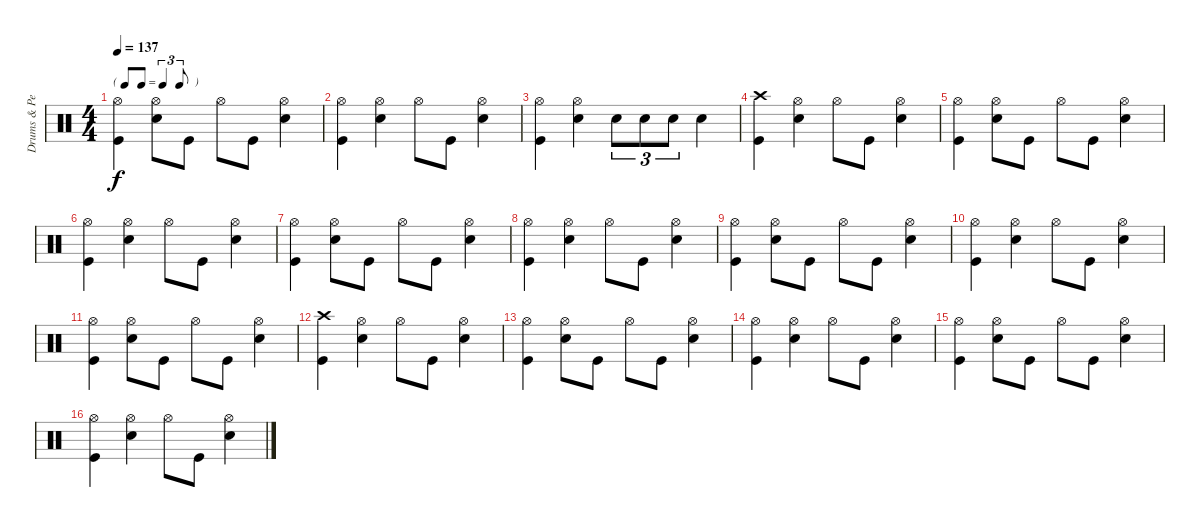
\track ("Drums & Percussion (Matt)" "Drums & Pe") {instrument percussion}
\staff {score}
\articulation defaults
\ts (4 4)
\tf triplet8th
\tempo 137
\clef neutral
\ks c
("Hi-Hat (open)" "Kick (hit)").4{dy f} ("Hi-Hat (open)" "Electric Snare (hit)").8 "Kick (hit)".8 "Hi-Hat (open)".8 "Kick (hit)".8 ("Hi-Hat (open)" "Electric Snare (hit)").4 |
("Hi-Hat (open)" "Kick (hit)").4 ("Hi-Hat (open)" "Electric Snare (hit)").4 "Hi-Hat (open)".8 "Kick (hit)".8 ("Hi-Hat (open)" "Electric Snare (hit)").4 |
("Hi-Hat (open)" "Kick (hit)").4 ("Hi-Hat (open)" "Electric Snare (hit)").4 "Electric Snare (hit)".8{tu (3 2)} "Electric Snare (hit)".8{tu (3 2)} "Electric Snare (hit)".8{tu (3 2)} "Electric Snare (hit)".4 |
("Crash high (hit)" "Kick (hit)").4 ("Hi-Hat (open)" "Electric Snare (hit)").4 "Hi-Hat (open)".8 "Kick (hit)".8 ("Hi-Hat (open)" "Electric Snare (hit)").4 |
("Hi-Hat (open)" "Kick (hit)").4 ("Hi-Hat (open)" "Electric Snare (hit)").8 "Kick (hit)".8 "Hi-Hat (open)".8 "Kick (hit)".8 ("Hi-Hat (open)" "Electric Snare (hit)").4 |
("Hi-Hat (open)" "Kick (hit)").4 ("Hi-Hat (open)" "Electric Snare (hit)").4 "Hi-Hat (open)".8 "Kick (hit)".8 ("Hi-Hat (open)" "Electric Snare (hit)").4 |
("Hi-Hat (open)" "Kick (hit)").4 ("Hi-Hat (open)" "Electric Snare (hit)").8 "Kick (hit)".8 "Hi-Hat (open)".8 "Kick (hit)".8 ("Hi-Hat (open)" "Electric Snare (hit)").4 |
("Hi-Hat (open)" "Kick (hit)").4 ("Hi-Hat (open)" "Electric Snare (hit)").4 "Hi-Hat (open)".8 "Kick (hit)".8 ("Hi-Hat (open)" "Electric Snare (hit)").4 |
("Hi-Hat (open)" "Kick (hit)").4 ("Hi-Hat (open)" "Electric Snare (hit)").8 "Kick (hit)".8 "Hi-Hat (open)".8 "Kick (hit)".8 ("Hi-Hat (open)" "Electric Snare (hit)").4 |
("Hi-Hat (open)" "Kick (hit)").4 ("Hi-Hat (open)" "Electric Snare (hit)").4 "Hi-Hat (open)".8 "Kick (hit)".8 ("Hi-Hat (open)" "Electric Snare (hit)").4 |
("Hi-Hat (open)" "Kick (hit)").4 ("Hi-Hat (open)" "Electric Snare (hit)").8 "Kick (hit)".8 "Hi-Hat (open)".8 "Kick (hit)".8 ("Hi-Hat (open)" "Electric Snare (hit)").4 |
("Crash high (hit)" "Kick (hit)").4 ("Hi-Hat (open)" "Electric Snare (hit)").4 "Hi-Hat (open)".8 "Kick (hit)".8 ("Hi-Hat (open)" "Electric Snare (hit)").4 |
("Hi-Hat (open)" "Kick (hit)").4 ("Hi-Hat (open)" "Electric Snare (hit)").8 "Kick (hit)".8 "Hi-Hat (open)".8 "Kick (hit)".8 ("Hi-Hat (open)" "Electric Snare (hit)").4 |
("Hi-Hat (open)" "Kick (hit)").4 ("Hi-Hat (open)" "Electric Snare (hit)").4 "Hi-Hat (open)".8 "Kick (hit)".8 ("Hi-Hat (open)" "Electric Snare (hit)").4 |
("Hi-Hat (open)" "Kick (hit)").4 ("Hi-Hat (open)" "Electric Snare (hit)").8 "Kick (hit)".8 "Hi-Hat (open)".8 "Kick (hit)".8 ("Hi-Hat (open)" "Electric Snare (hit)").4 |
("Hi-Hat (open)" "Kick (hit)").4 ("Hi-Hat (open)" "Electric Snare (hit)").4 "Hi-Hat (open)".8 "Kick (hit)".8 ("Hi-Hat (open)" "Electric Snare (hit)").4
